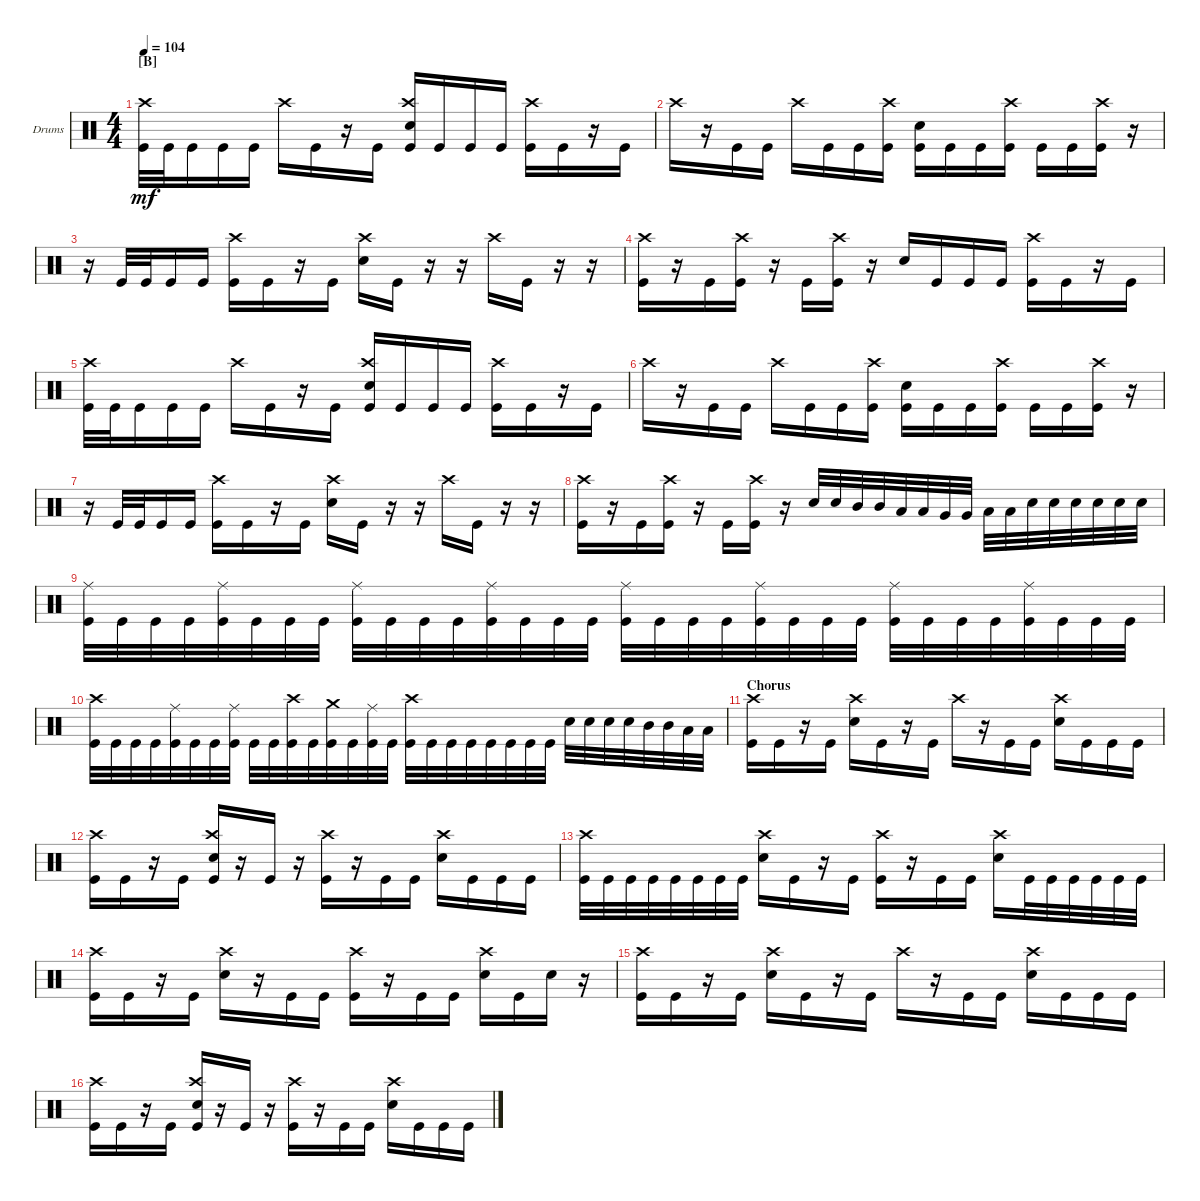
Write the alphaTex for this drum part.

\bracketExtendMode groupsimilarinstruments
\firstSystemTrackNameOrientation horizontal
\otherSystemsTrackNameOrientation horizontal
\track ("Drumkit" "Drums") {instrument percussion}
\staff {score}
\articulation defaults
\ts (4 4)
\section ("B" "")
\tempo 104
\clef neutral
\ks c
("Kick (hit)" "Crash high (hit)").32{dy mf} "Kick (hit)".32 "Kick (hit)".16 "Kick (hit)".16 "Kick (hit)".16 "Crash high (hit)".16 "Kick (hit)".16 r.16 "Kick (hit)".16 ("Snare (hit) 2" "Kick (hit)" "Crash high (hit)").16 "Kick (hit)".16 "Kick (hit)".16 "Kick (hit)".16 ("Kick (hit)" "Crash high (hit)").16 "Kick (hit)".16 r.16 "Kick (hit)".16 |
"Crash high (hit)".16 r.16 "Kick (hit)".16 "Kick (hit)".16 "Crash high (hit)".16 "Kick (hit)".16 "Kick (hit)".16 ("Kick (hit)" "Crash high (hit)").16 ("Snare (hit) 2" "Kick (hit)").16 "Kick (hit)".16 "Kick (hit)".16 ("Kick (hit)" "Crash high (hit)").16 "Kick (hit)".16 "Kick (hit)".16 ("Kick (hit)" "Crash high (hit)").16 r.16 |
r.16 "Kick (hit)".32 "Kick (hit)".32 "Kick (hit)".16 "Kick (hit)".16 ("Kick (hit)" "Crash high (hit)").16 "Kick (hit)".16 r.16 "Kick (hit)".16 ("Snare (hit) 2" "Crash high (hit)").16 "Kick (hit)".16 r.16 r.16 "Crash high (hit)".16 "Kick (hit)".16 r.16 r.16 |
("Kick (hit)" "Crash high (hit)").16 r.16 "Kick (hit)".16 ("Kick (hit)" "Crash high (hit)").16 r.16 "Kick (hit)".16 ("Kick (hit)" "Crash high (hit)").16 r.16 "Snare (hit) 2".16 "Kick (hit)".16 "Kick (hit)".16 "Kick (hit)".16 ("Kick (hit)" "Crash high (hit)").16 "Kick (hit)".16 r.16 "Kick (hit)".16 |
("Kick (hit)" "Crash high (hit)").32 "Kick (hit)".32 "Kick (hit)".16 "Kick (hit)".16 "Kick (hit)".16 "Crash high (hit)".16 "Kick (hit)".16 r.16 "Kick (hit)".16 ("Snare (hit) 2" "Kick (hit)" "Crash high (hit)").16 "Kick (hit)".16 "Kick (hit)".16 "Kick (hit)".16 ("Kick (hit)" "Crash high (hit)").16 "Kick (hit)".16 r.16 "Kick (hit)".16 |
"Crash high (hit)".16 r.16 "Kick (hit)".16 "Kick (hit)".16 "Crash high (hit)".16 "Kick (hit)".16 "Kick (hit)".16 ("Kick (hit)" "Crash high (hit)").16 ("Snare (hit) 2" "Kick (hit)").16 "Kick (hit)".16 "Kick (hit)".16 ("Kick (hit)" "Crash high (hit)").16 "Kick (hit)".16 "Kick (hit)".16 ("Kick (hit)" "Crash high (hit)").16 r.16 |
r.16 "Kick (hit)".32 "Kick (hit)".32 "Kick (hit)".16 "Kick (hit)".16 ("Kick (hit)" "Crash high (hit)").16 "Kick (hit)".16 r.16 "Kick (hit)".16 ("Snare (hit) 2" "Crash high (hit)").16 "Kick (hit)".16 r.16 r.16 "Crash high (hit)".16 "Kick (hit)".16 r.16 r.16 |
("Kick (hit)" "Crash high (hit)").16 r.16 "Kick (hit)".16 ("Kick (hit)" "Crash high (hit)").16 r.16 "Kick (hit)".16 ("Kick (hit)" "Crash high (hit)").16 r.16 "Snare (hit) 2".32 "Snare (hit) 2".32 "Mid Tom (hit)".32 "Mid Tom (hit)".32 "Low Tom (hit)".32 "Low Tom (hit)".32 "Very Low Tom (hit)".32 "Very Low Tom (hit)".32 "Low Tom (hit)".32 "Low Tom (hit)".32 "Snare (hit) 2".32 "Snare (hit) 2".32 "Snare (hit) 2".32 "Snare (hit) 2".32 "Snare (hit) 2".32 "Snare (hit) 2".32 |
("Kick (hit)" "Ride (middle)").32 "Kick (hit)".32 "Kick (hit)".32 "Kick (hit)".32 ("Kick (hit)" "Ride (middle)").32 "Kick (hit)".32 "Kick (hit)".32 "Kick (hit)".32 ("Kick (hit)" "Ride (middle)").32 "Kick (hit)".32 "Kick (hit)".32 "Kick (hit)".32 ("Kick (hit)" "Ride (middle)").32 "Kick (hit)".32 "Kick (hit)".32 "Kick (hit)".32 ("Kick (hit)" "Ride (middle)").32 "Kick (hit)".32 "Kick (hit)".32 "Kick (hit)".32 ("Kick (hit)" "Ride (middle)").32 "Kick (hit)".32 "Kick (hit)".32 "Kick (hit)".32 ("Kick (hit)" "Ride (middle)").32 "Kick (hit)".32 "Kick (hit)".32 "Kick (hit)".32 ("Kick (hit)" "Ride (middle)").32 "Kick (hit)".32 "Kick (hit)".32 "Kick (hit)".32 |
("Kick (hit)" "Crash high (hit)").32 "Kick (hit)".32 "Kick (hit)".32 "Kick (hit)".32 ("Kick (hit)" "Ride (middle)").32 "Kick (hit)".32 "Kick (hit)".32 ("Kick (hit)" "Ride (middle)").32 "Kick (hit)".32 "Kick (hit)".32 ("Kick (hit)" "Crash high (hit)").32 "Kick (hit)".32 ("Kick (hit)" "Crash medium (hit)").32 "Kick (hit)".32 ("Kick (hit)" "Ride (middle)").32 "Kick (hit)".32 ("Kick (hit)" "Crash high (hit)").32 "Kick (hit)".32 "Kick (hit)".32 "Kick (hit)".32 "Kick (hit)".32 "Kick (hit)".32 "Kick (hit)".32 "Kick (hit)".32 "Snare (hit) 2".32 "Snare (hit) 2".32 "Snare (hit) 2".32 "Snare (hit) 2".32 "Mid Tom (hit)".32 "Mid Tom (hit)".32 "Low Tom (hit)".32 "Low Tom (hit)".32 |
\section ("" "Chorus")
("Kick (hit)" "Crash high (hit)").16 "Kick (hit)".16 r.16 "Kick (hit)".16 ("Snare (hit) 2" "Crash high (hit)").16 "Kick (hit)".16 r.16 "Kick (hit)".16 "Crash high (hit)".16 r.16 "Kick (hit)".16 "Kick (hit)".16 ("Snare (hit) 2" "Crash high (hit)").16 "Kick (hit)".16 "Kick (hit)".16 "Kick (hit)".16 |
("Kick (hit)" "Crash high (hit)").16 "Kick (hit)".16 r.16 "Kick (hit)".16 ("Snare (hit) 2" "Kick (hit)" "Crash high (hit)").16 r.16 "Kick (hit)".16 r.16 ("Kick (hit)" "Crash high (hit)").16 r.16 "Kick (hit)".16 "Kick (hit)".16 ("Snare (hit) 2" "Crash high (hit)").16 "Kick (hit)".16 "Kick (hit)".16 "Kick (hit)".16 |
("Kick (hit)" "Crash high (hit)").32 "Kick (hit)".32 "Kick (hit)".32 "Kick (hit)".32 "Kick (hit)".32 "Kick (hit)".32 "Kick (hit)".32 "Kick (hit)".32 ("Snare (hit) 2" "Crash high (hit)").16 "Kick (hit)".16 r.16 "Kick (hit)".16 ("Kick (hit)" "Crash high (hit)").16 r.16 "Kick (hit)".16 "Kick (hit)".16 ("Snare (hit) 2" "Crash high (hit)").16 "Kick (hit)".32 "Kick (hit)".32 "Kick (hit)".32 "Kick (hit)".32 "Kick (hit)".32 "Kick (hit)".32 |
("Kick (hit)" "Crash high (hit)").16 "Kick (hit)".16 r.16 "Kick (hit)".16 ("Snare (hit) 2" "Crash high (hit)").16 r.16 "Kick (hit)".16 "Kick (hit)".16 ("Kick (hit)" "Crash high (hit)").16 r.16 "Kick (hit)".16 "Kick (hit)".16 ("Snare (hit) 2" "Crash high (hit)").16 "Kick (hit)".16 "Snare (hit) 2".16 r.16 |
("Kick (hit)" "Crash high (hit)").16 "Kick (hit)".16 r.16 "Kick (hit)".16 ("Snare (hit) 2" "Crash high (hit)").16 "Kick (hit)".16 r.16 "Kick (hit)".16 "Crash high (hit)".16 r.16 "Kick (hit)".16 "Kick (hit)".16 ("Snare (hit) 2" "Crash high (hit)").16 "Kick (hit)".16 "Kick (hit)".16 "Kick (hit)".16 |
("Kick (hit)" "Crash high (hit)").16 "Kick (hit)".16 r.16 "Kick (hit)".16 ("Snare (hit) 2" "Kick (hit)" "Crash high (hit)").16 r.16 "Kick (hit)".16 r.16 ("Kick (hit)" "Crash high (hit)").16 r.16 "Kick (hit)".16 "Kick (hit)".16 ("Snare (hit) 2" "Crash high (hit)").16 "Kick (hit)".16 "Kick (hit)".16 "Kick (hit)".16
